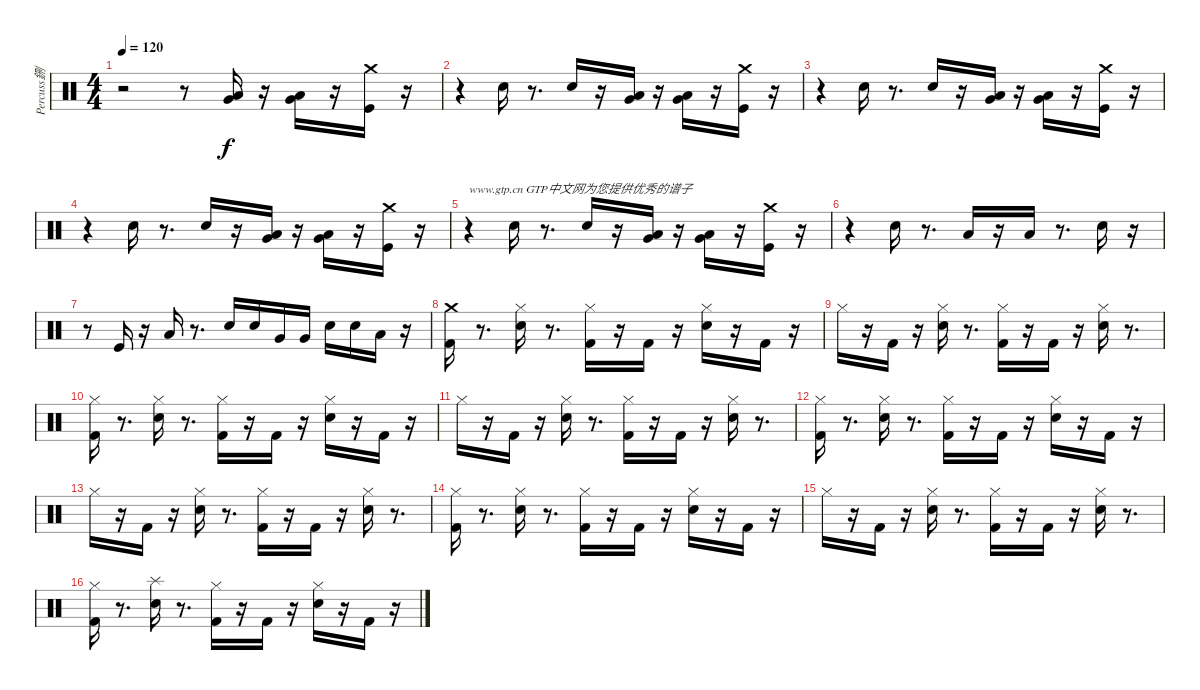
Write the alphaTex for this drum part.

\track ("Percuss鉶" "Percuss鉶") {instrument percussion}
\staff {score}
\articulation defaults
\ts (4 4)
\tempo 120
\clef neutral
\ks c
r.2{dy f} r.8 ("Low Tom (hit)" "Very Low Tom (hit)").16 r.16 ("Low Tom (hit)" "Very Low Tom (hit)").16 r.16 ("Kick (hit)" "Crash medium (hit)").16 r.16 |
r.4 "Snare (hit) 2".16 r.8{d} "Snare (hit) 2".16 r.16 ("Low Tom (hit)" "Very Low Tom (hit)").16 r.16 ("Low Tom (hit)" "Very Low Tom (hit)").16 r.16 ("Kick (hit)" "Crash medium (hit)").16 r.16 |
r.4 "Snare (hit) 2".16 r.8{d} "Snare (hit) 2".16 r.16 ("Low Tom (hit)" "Very Low Tom (hit)").16 r.16 ("Very Low Tom (hit)" "Low Tom (hit)").16 r.16 ("Kick (hit)" "Crash medium (hit)").16 r.16 |
r.4 "Snare (hit) 2".16 r.8{d} "Snare (hit) 2".16 r.16 ("Low Tom (hit)" "Very Low Tom (hit)").16 r.16 ("Low Tom (hit)" "Very Low Tom (hit)").16 r.16 ("Kick (hit)" "Crash medium (hit)").16 r.16 |
r.4{txt "www.gtp.cn GTP中文网为您提供优秀的谱子"} "Snare (hit) 2".16 r.8{d} "Snare (hit) 2".16 r.16 ("Low Tom (hit)" "Very Low Tom (hit)").16 r.16 ("Low Tom (hit)" "Very Low Tom (hit)").16 r.16 ("Kick (hit)" "Crash medium (hit)").16 r.16 |
r.4 "Snare (hit) 2".16 r.8{d} "Low Tom (hit)".16 r.16 "Low Tom (hit)".16 r.8{d} "Snare (hit) 2".16 r.16 |
r.8 "Kick (hit)".16 r.16 "Low Tom (hit)".16 r.8{d} "Snare (hit) 2".16 "Snare (hit) 2".16 "Very Low Tom (hit)".16 "Very Low Tom (hit)".16 "Snare (hit) 2".16 "Snare (hit) 2".16 "Low Tom (hit)".16 r.16 |
("Crash medium (hit)" "Kick (hit) 2").16 r.8{d} ("Hi-Hat (closed)" "Snare (hit) 2").16 r.8{d} ("Hi-Hat (closed)" "Kick (hit) 2").16 r.16 "Kick (hit) 2".16 r.16 ("Hi-Hat (closed)" "Snare (hit) 2").16 r.16 "Kick (hit) 2".16 r.16 |
"Hi-Hat (closed)".16 r.16 "Kick (hit) 2".16 r.16 ("Hi-Hat (closed)" "Snare (hit) 2").16 r.8{d} ("Hi-Hat (closed)" "Kick (hit) 2").16 r.16 "Kick (hit) 2".16 r.16 ("Hi-Hat (closed)" "Snare (hit) 2").16 r.8{d} |
("Hi-Hat (closed)" "Kick (hit) 2").16 r.8{d} ("Hi-Hat (closed)" "Snare (hit) 2").16 r.8{d} ("Hi-Hat (closed)" "Kick (hit) 2").16 r.16 "Kick (hit) 2".16 r.16 ("Hi-Hat (closed)" "Snare (hit) 2").16 r.16 "Kick (hit) 2".16 r.16 |
"Hi-Hat (closed)".16 r.16 "Kick (hit) 2".16 r.16 ("Hi-Hat (closed)" "Snare (hit) 2").16 r.8{d} ("Hi-Hat (closed)" "Kick (hit) 2").16 r.16 "Kick (hit) 2".16 r.16 ("Hi-Hat (closed)" "Snare (hit) 2").16 r.8{d} |
("Hi-Hat (closed)" "Kick (hit) 2").16 r.8{d} ("Hi-Hat (closed)" "Snare (hit) 2").16 r.8{d} ("Hi-Hat (closed)" "Kick (hit) 2").16 r.16 "Kick (hit) 2".16 r.16 ("Hi-Hat (closed)" "Snare (hit) 2").16 r.16 "Kick (hit) 2".16 r.16 |
"Hi-Hat (closed)".16 r.16 "Kick (hit) 2".16 r.16 ("Hi-Hat (closed)" "Snare (hit) 2").16 r.8{d} ("Hi-Hat (closed)" "Kick (hit) 2").16 r.16 "Kick (hit) 2".16 r.16 ("Hi-Hat (closed)" "Snare (hit) 2").16 r.8{d} |
("Hi-Hat (closed)" "Kick (hit) 2").16 r.8{d} ("Hi-Hat (closed)" "Snare (hit) 2").16 r.8{d} ("Hi-Hat (closed)" "Kick (hit) 2").16 r.16 "Kick (hit) 2".16 r.16 ("Hi-Hat (closed)" "Snare (hit) 2").16 r.16 "Kick (hit) 2".16 r.16 |
"Hi-Hat (closed)".16 r.16 "Kick (hit) 2".16 r.16 ("Hi-Hat (closed)" "Snare (hit) 2").16 r.8{d} ("Hi-Hat (closed)" "Kick (hit) 2").16 r.16 "Kick (hit) 2".16 r.16 ("Hi-Hat (closed)" "Snare (hit) 2").16 r.8{d} |
("Hi-Hat (closed)" "Kick (hit) 2").16 r.8{d} ("Splash (hit)" "Snare (hit) 2").16 r.8{d} ("Hi-Hat (closed)" "Kick (hit) 2").16 r.16 "Kick (hit) 2".16 r.16 ("Hi-Hat (closed)" "Snare (hit) 2").16 r.16 "Kick (hit) 2".16 r.16
